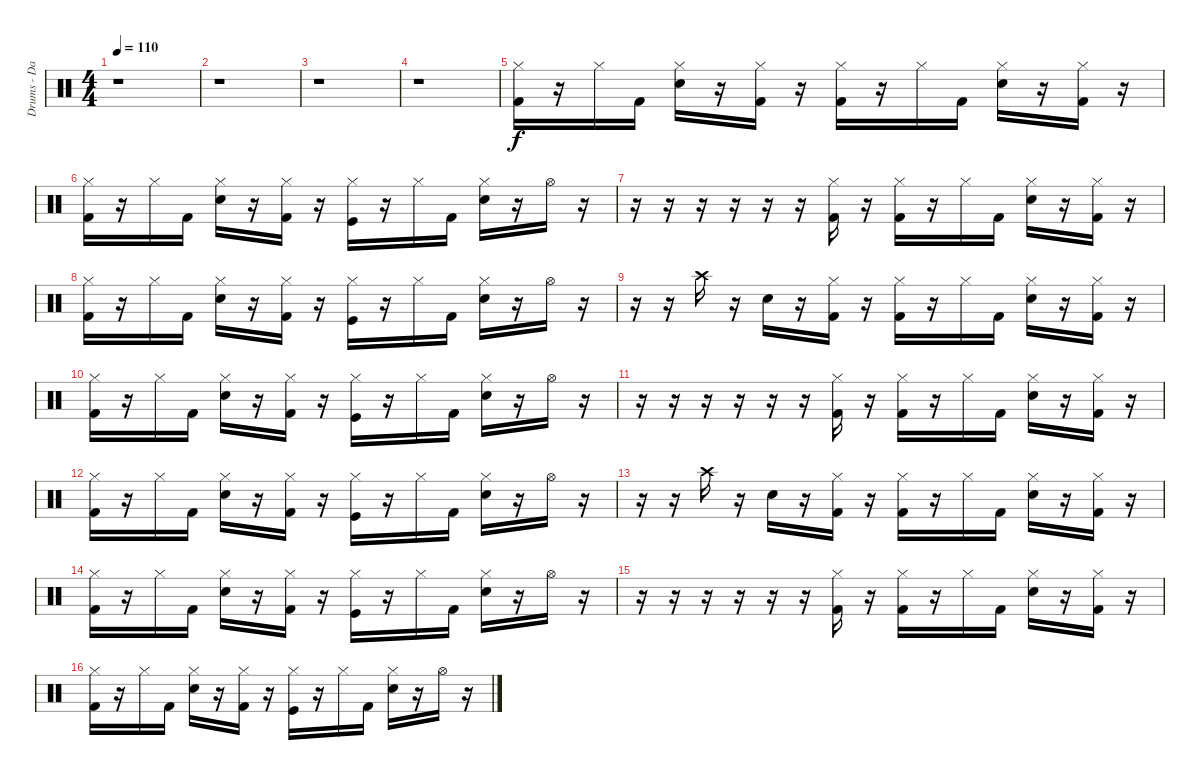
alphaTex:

\track ("Drums - David" "Drums - Da") {instrument percussion}
\staff {score}
\articulation defaults
\ts (4 4)
\tempo 110
\clef neutral
\ks c
r.1{dy f} |
r.1 |
r.1 |
r.1 |
("Hi-Hat (closed)" "Kick (hit) 2").16 r.16 "Hi-Hat (closed)".16 "Kick (hit) 2".16 ("Hi-Hat (closed)" "Snare (hit) 2").16 r.16 ("Hi-Hat (closed)" "Kick (hit) 2").16 r.16 ("Hi-Hat (closed)" "Kick (hit) 2").16 r.16 "Hi-Hat (closed)".16 "Kick (hit) 2".16 ("Hi-Hat (closed)" "Snare (hit) 2").16 r.16 ("Hi-Hat (closed)" "Kick (hit) 2").16 r.16 |
("Hi-Hat (closed)" "Kick (hit) 2").16 r.16 "Hi-Hat (closed)".16 "Kick (hit) 2".16 ("Hi-Hat (closed)" "Snare (hit) 2").16 r.16 ("Hi-Hat (closed)" "Kick (hit) 2").16 r.16 ("Hi-Hat (closed)" "Kick (hit)").16 r.16 "Hi-Hat (closed)".16 "Kick (hit) 2".16 ("Hi-Hat (closed)" "Snare (hit) 2").16 r.16 "Hi-Hat (open)".16 r.16 |
r.16 r.16 r.16 r.16 r.16 r.16 ("Hi-Hat (closed)" "Kick (hit) 2").16 r.16 ("Hi-Hat (closed)" "Kick (hit) 2").16 r.16 "Hi-Hat (closed)".16 "Kick (hit) 2".16 ("Hi-Hat (closed)" "Snare (hit) 2").16 r.16 ("Hi-Hat (closed)" "Kick (hit) 2").16 r.16 |
("Hi-Hat (closed)" "Kick (hit) 2").16 r.16 "Hi-Hat (closed)".16 "Kick (hit) 2".16 ("Hi-Hat (closed)" "Snare (hit) 2").16 r.16 ("Hi-Hat (closed)" "Kick (hit) 2").16 r.16 ("Hi-Hat (closed)" "Kick (hit)").16 r.16 "Hi-Hat (closed)".16 "Kick (hit) 2".16 ("Hi-Hat (closed)" "Snare (hit) 2").16 r.16 "Hi-Hat (open)".16 r.16 |
r.16 r.16 "Crash high (hit)".16 r.16 "Snare (hit) 2".16 r.16 ("Hi-Hat (closed)" "Kick (hit) 2").16 r.16 ("Hi-Hat (closed)" "Kick (hit) 2").16 r.16 "Hi-Hat (closed)".16 "Kick (hit) 2".16 ("Hi-Hat (closed)" "Snare (hit) 2").16 r.16 ("Hi-Hat (closed)" "Kick (hit) 2").16 r.16 |
("Hi-Hat (closed)" "Kick (hit) 2").16 r.16 "Hi-Hat (closed)".16 "Kick (hit) 2".16 ("Hi-Hat (closed)" "Snare (hit) 2").16 r.16 ("Hi-Hat (closed)" "Kick (hit) 2").16 r.16 ("Hi-Hat (closed)" "Kick (hit)").16 r.16 "Hi-Hat (closed)".16 "Kick (hit) 2".16 ("Hi-Hat (closed)" "Snare (hit) 2").16 r.16 "Hi-Hat (open)".16 r.16 |
r.16 r.16 r.16 r.16 r.16 r.16 ("Hi-Hat (closed)" "Kick (hit) 2").16 r.16 ("Hi-Hat (closed)" "Kick (hit) 2").16 r.16 "Hi-Hat (closed)".16 "Kick (hit) 2".16 ("Hi-Hat (closed)" "Snare (hit) 2").16 r.16 ("Hi-Hat (closed)" "Kick (hit) 2").16 r.16 |
("Hi-Hat (closed)" "Kick (hit) 2").16 r.16 "Hi-Hat (closed)".16 "Kick (hit) 2".16 ("Hi-Hat (closed)" "Snare (hit) 2").16 r.16 ("Hi-Hat (closed)" "Kick (hit) 2").16 r.16 ("Hi-Hat (closed)" "Kick (hit)").16 r.16 "Hi-Hat (closed)".16 "Kick (hit) 2".16 ("Hi-Hat (closed)" "Snare (hit) 2").16 r.16 "Hi-Hat (open)".16 r.16 |
r.16 r.16 "Crash high (hit)".16 r.16 "Snare (hit) 2".16 r.16 ("Hi-Hat (closed)" "Kick (hit) 2").16 r.16 ("Hi-Hat (closed)" "Kick (hit) 2").16 r.16 "Hi-Hat (closed)".16 "Kick (hit) 2".16 ("Hi-Hat (closed)" "Snare (hit) 2").16 r.16 ("Hi-Hat (closed)" "Kick (hit) 2").16 r.16 |
("Hi-Hat (closed)" "Kick (hit) 2").16 r.16 "Hi-Hat (closed)".16 "Kick (hit) 2".16 ("Hi-Hat (closed)" "Snare (hit) 2").16 r.16 ("Hi-Hat (closed)" "Kick (hit) 2").16 r.16 ("Hi-Hat (closed)" "Kick (hit)").16 r.16 "Hi-Hat (closed)".16 "Kick (hit) 2".16 ("Hi-Hat (closed)" "Snare (hit) 2").16 r.16 "Hi-Hat (open)".16 r.16 |
r.16 r.16 r.16 r.16 r.16 r.16 ("Hi-Hat (closed)" "Kick (hit) 2").16 r.16 ("Hi-Hat (closed)" "Kick (hit) 2").16 r.16 "Hi-Hat (closed)".16 "Kick (hit) 2".16 ("Hi-Hat (closed)" "Snare (hit) 2").16 r.16 ("Hi-Hat (closed)" "Kick (hit) 2").16 r.16 |
("Hi-Hat (closed)" "Kick (hit) 2").16 r.16 "Hi-Hat (closed)".16 "Kick (hit) 2".16 ("Hi-Hat (closed)" "Snare (hit) 2").16 r.16 ("Hi-Hat (closed)" "Kick (hit) 2").16 r.16 ("Hi-Hat (closed)" "Kick (hit)").16 r.16 "Hi-Hat (closed)".16 "Kick (hit) 2".16 ("Hi-Hat (closed)" "Snare (hit) 2").16 r.16 "Hi-Hat (open)".16 r.16
